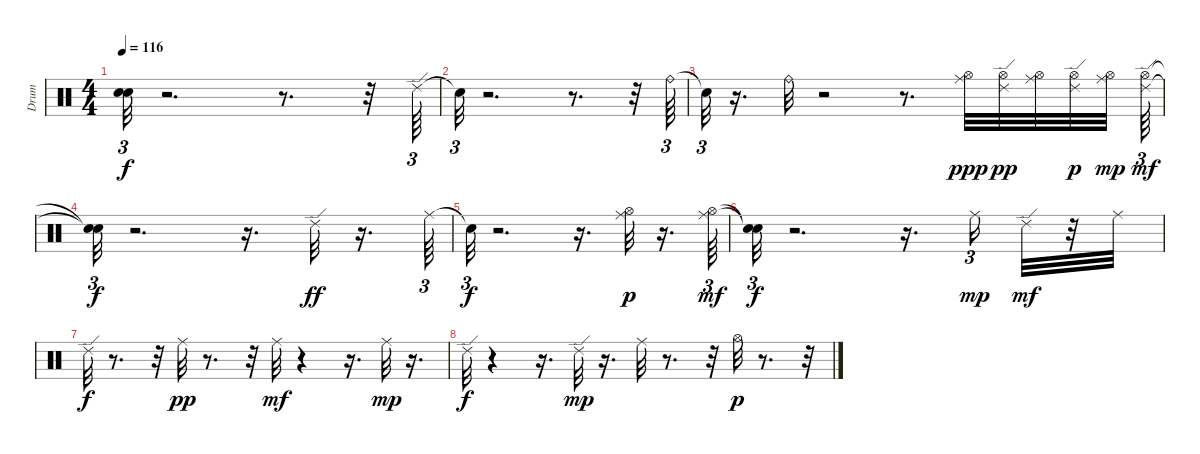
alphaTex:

\track ("Drum    " "Drum    ") {instrument percussion}
\staff {score}
\articulation defaults
\ts (4 4)
\tempo 116
\clef neutral
\ks c
("Snare (hit)"{t} "Snare (hit)"{t}).32{tu (3 2) dy f} r.2{d} r.8{d} r.32 "Ride (edge) 2".64{tu (3 2)} |
"Snare (hit)"{t}.32{tu (3 2)} r.2{d} r.8{d} r.32 "Ride (bell)".64{tu (3 2)} |
"Snare (hit)"{t}.32{tu (3 2)} r.16{d} "Ride (bell)".32 r.2 r.8{d} ("Ride (middle)" "Hi-Hat (open)").32{dy ppp} ("Hi-Hat (open)" "Ride (edge) 2").32{dy pp} ("Ride (middle)" "Hi-Hat (open)").32 ("Ride (edge) 2" "Hi-Hat (open)").32{dy p} ("Hi-Hat (open)" "Ride (middle)").32{dy mp} ("Hi-Hat (open)" "Ride (edge) 2").64{tu (3 2) dy mf} |
("Snare (hit)"{t} "Snare (hit)"{t}).32{tu (3 2) dy f} r.2{d} r.16{d} "Ride (edge) 2".32{dy ff} r.16{d} "Ride (middle)".64{tu (3 2)} |
"Snare (hit)"{t}.32{tu (3 2) dy f} r.2{d} r.16{d} ("Ride (middle)" "Hi-Hat (open)").32{dy p} r.16{d} ("Hi-Hat (open)" "Ride (middle)").64{tu (3 2) dy mf} |
("Snare (hit)"{t} "Snare (hit)"{t}).32{tu (3 2) dy f} r.2{d} r.16{d} "Ride (middle)".16{tu (3 2) dy mp} "Ride (edge) 2".32{dy mf} r.32 "Ride (middle)".32 |
"Ride (edge) 2".32{dy f} r.8{d} r.32 "Ride (middle)".32{dy pp} r.8{d} r.32 "Ride (middle)".32{dy mf} r.4 r.16{d} "Ride (middle)".32{dy mp} r.16{d} |
"Ride (edge) 2".32{dy f} r.4 r.16{d} "Ride (edge) 2".32{dy mp} r.16{d} "Ride (middle)".32 r.8{d} r.32 "Hi-Hat (open)".32{dy p} r.8{d} r.32
